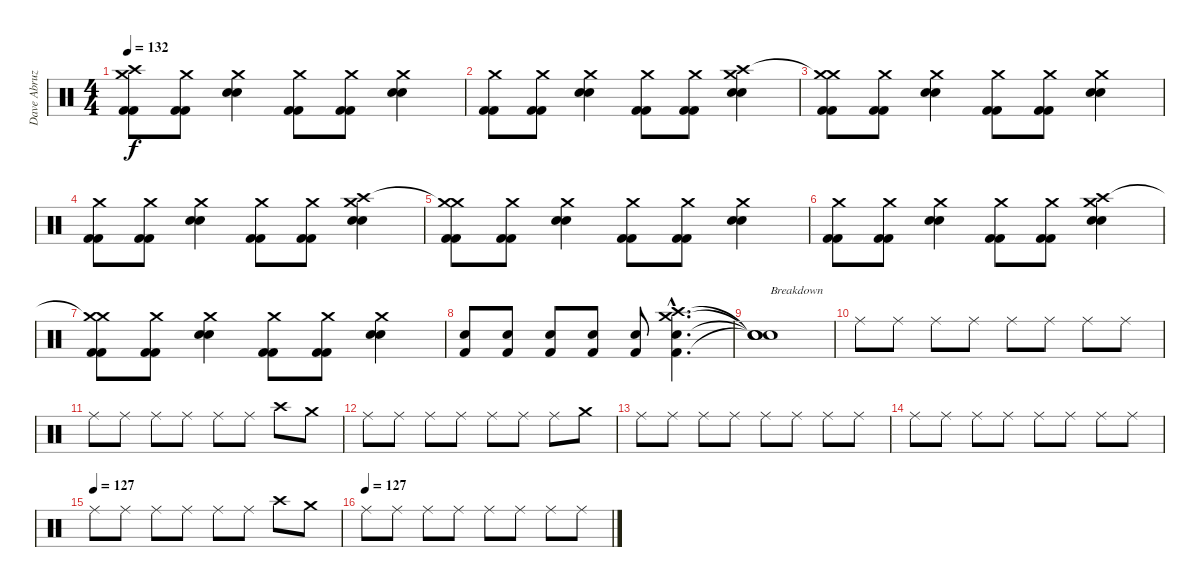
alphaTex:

\track ("Dave Abruzzesse" "Dave Abruz") {instrument percussion}
\staff {score}
\articulation defaults
\ts (4 4)
\tempo 132
\clef neutral
\ks c
("Crash high (hit)"{t} "Crash medium (hit)" "Kick (hit) 2" "Kick (hit) 2").8{dy f} ("Crash medium (hit)" "Kick (hit) 2" "Kick (hit) 2").8 ("Crash medium (hit)" "Snare (hit) 2" "Snare (hit) 2").4 ("Crash medium (hit)" "Kick (hit) 2" "Kick (hit) 2").8 ("Crash medium (hit)" "Kick (hit) 2" "Kick (hit) 2").8 ("Crash medium (hit)" "Snare (hit) 2" "Snare (hit) 2").4 |
("Crash medium (hit)" "Kick (hit) 2" "Kick (hit) 2").8 ("Crash medium (hit)" "Kick (hit) 2" "Kick (hit) 2").8 ("Crash medium (hit)" "Snare (hit) 2" "Snare (hit) 2").4 ("Crash medium (hit)" "Kick (hit) 2" "Kick (hit) 2").8 ("Crash medium (hit)" "Kick (hit) 2" "Kick (hit) 2").8 ("Crash high (hit)" "Crash medium (hit)" "Snare (hit) 2" "Snare (hit) 2").4 |
("Crash medium (hit)"{t} "Crash medium (hit)" "Kick (hit) 2" "Kick (hit) 2").8 ("Crash medium (hit)" "Kick (hit) 2" "Kick (hit) 2").8 ("Crash medium (hit)" "Snare (hit) 2" "Snare (hit) 2").4 ("Crash medium (hit)" "Kick (hit) 2" "Kick (hit) 2").8 ("Crash medium (hit)" "Kick (hit) 2" "Kick (hit) 2").8 ("Crash medium (hit)" "Snare (hit) 2" "Snare (hit) 2").4 |
("Crash medium (hit)" "Kick (hit) 2" "Kick (hit) 2").8 ("Crash medium (hit)" "Kick (hit) 2" "Kick (hit) 2").8 ("Crash medium (hit)" "Snare (hit) 2" "Snare (hit) 2").4 ("Crash medium (hit)" "Kick (hit) 2" "Kick (hit) 2").8 ("Crash medium (hit)" "Kick (hit) 2" "Kick (hit) 2").8 ("Crash high (hit)" "Crash medium (hit)" "Snare (hit) 2" "Snare (hit) 2").4 |
("Crash medium (hit)"{t} "Crash medium (hit)" "Kick (hit) 2" "Kick (hit) 2").8 ("Crash medium (hit)" "Kick (hit) 2" "Kick (hit) 2").8 ("Crash medium (hit)" "Snare (hit) 2" "Snare (hit) 2").4 ("Crash medium (hit)" "Kick (hit) 2" "Kick (hit) 2").8 ("Crash medium (hit)" "Kick (hit) 2" "Kick (hit) 2").8 ("Crash medium (hit)" "Snare (hit) 2" "Snare (hit) 2").4 |
("Crash medium (hit)" "Kick (hit) 2" "Kick (hit) 2").8 ("Crash medium (hit)" "Kick (hit) 2" "Kick (hit) 2").8 ("Crash medium (hit)" "Snare (hit) 2" "Snare (hit) 2").4 ("Crash medium (hit)" "Kick (hit) 2" "Kick (hit) 2").8 ("Crash medium (hit)" "Kick (hit) 2" "Kick (hit) 2").8 ("Crash high (hit)" "Crash medium (hit)" "Snare (hit) 2" "Snare (hit) 2").4 |
("Crash medium (hit)"{t} "Crash medium (hit)" "Kick (hit) 2" "Kick (hit) 2").8 ("Crash medium (hit)" "Kick (hit) 2" "Kick (hit) 2").8 ("Crash medium (hit)" "Snare (hit) 2" "Snare (hit) 2").4 ("Crash medium (hit)" "Kick (hit) 2" "Kick (hit) 2").8 ("Crash medium (hit)" "Kick (hit) 2" "Kick (hit) 2").8 ("Crash medium (hit)" "Snare (hit) 2" "Snare (hit) 2").4 |
("Snare (hit) 2" "Kick (hit) 2").8 ("Snare (hit) 2" "Kick (hit) 2").8 ("Snare (hit) 2" "Kick (hit) 2").8 ("Snare (hit) 2" "Kick (hit) 2").8 ("Snare (hit) 2" "Kick (hit) 2").8 ("Crash medium (hit)"{hac} "Crash high (hit)"{hac} "Snare (hit) 2"{hac} "Kick (hit) 2"{hac}).4{d} |
("Snare (hit)"{t} "Snare (hit)"{t} "Snare (hit)"{t} "Snare (hit)"{t}).1{txt "Breakdown"} |
"Ride (middle)".8 "Ride (middle)".8 "Ride (middle)".8 "Ride (middle)".8 "Ride (middle)".8 "Ride (middle)".8 "Ride (middle)".8 "Ride (middle)".8 |
"Ride (middle)".8 "Ride (middle)".8 "Ride (middle)".8 "Ride (middle)".8 "Ride (middle)".8 "Ride (middle)".8 "Crash high (hit)".8 "Crash medium (hit)".8 |
"Ride (middle)".8 "Ride (middle)".8 "Ride (middle)".8 "Ride (middle)".8 "Ride (middle)".8 "Ride (middle)".8 "Ride (middle)".8 "Crash medium (hit)".8 |
"Ride (middle)".8 "Ride (middle)".8 "Ride (middle)".8 "Ride (middle)".8 "Ride (middle)".8 "Ride (middle)".8 "Ride (middle)".8 "Ride (middle)".8 |
"Ride (middle)".8 "Ride (middle)".8 "Ride (middle)".8 "Ride (middle)".8 "Ride (middle)".8 "Ride (middle)".8 "Ride (middle)".8 "Ride (middle)".8 |
\tempo (127)
"Ride (middle)".8 "Ride (middle)".8 "Ride (middle)".8 "Ride (middle)".8 "Ride (middle)".8 "Ride (middle)".8 "Crash high (hit)".8 "Crash medium (hit)".8 |
\tempo (127)
"Ride (middle)".8 "Ride (middle)".8 "Ride (middle)".8 "Ride (middle)".8 "Ride (middle)".8 "Ride (middle)".8 "Ride (middle)".8 "Ride (middle)".8
